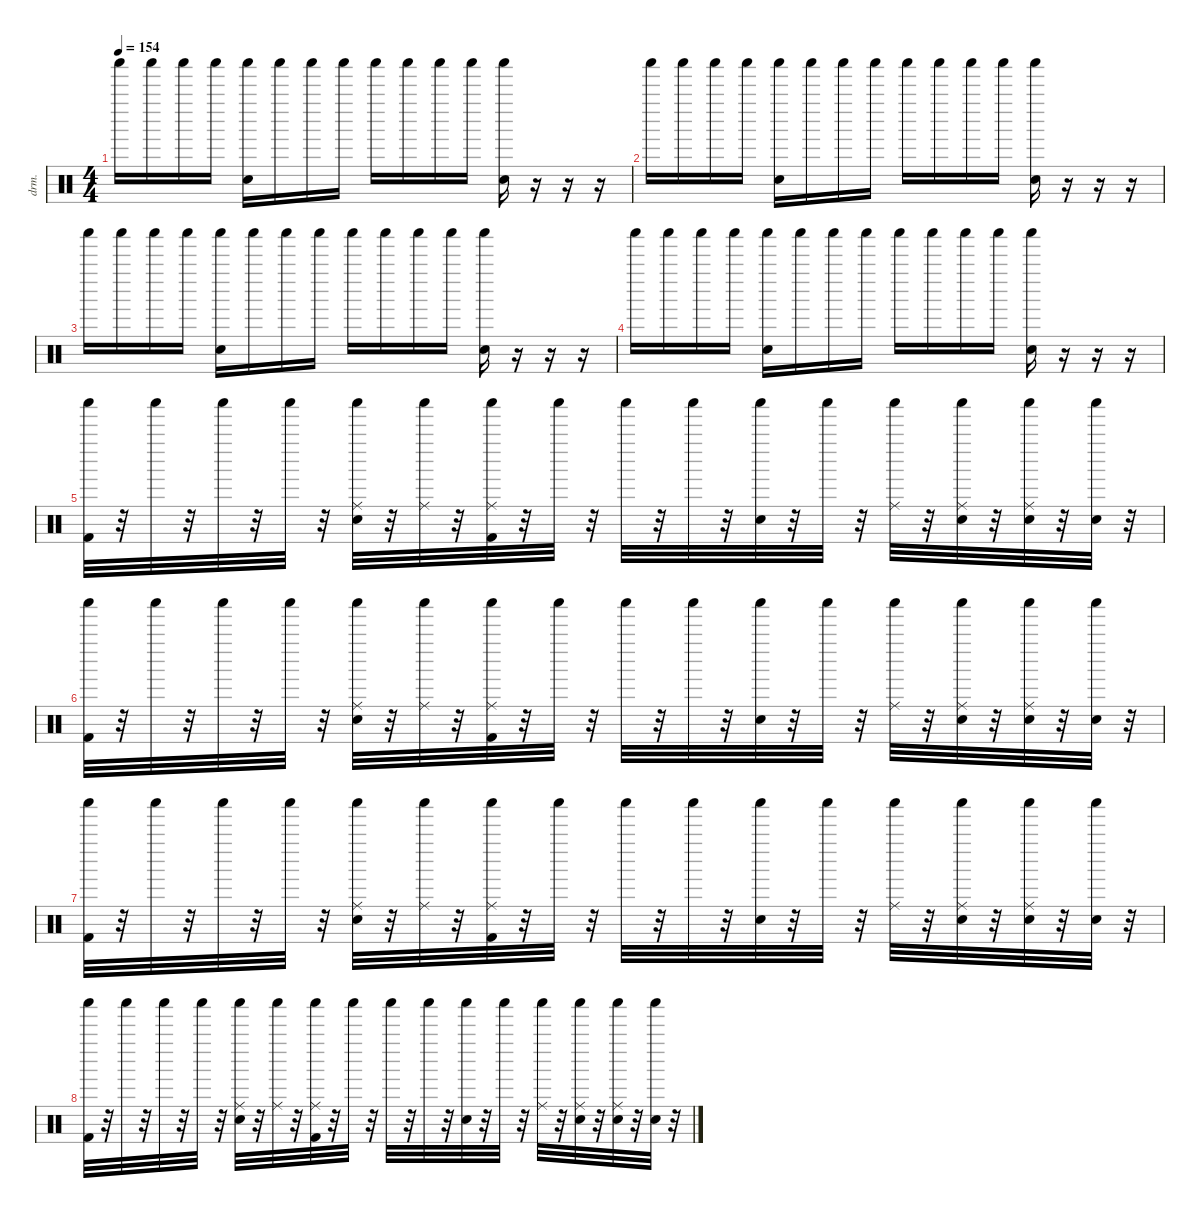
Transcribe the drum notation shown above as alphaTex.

\defaultSystemsLayout 4
\hideDynamics
\bracketExtendMode nobrackets
\otherSystemsTrackNameOrientation horizontal
\track ("Percussion" "drm.") {instrument percussion}
\staff {score}
\articulation defaults
\ts (4 4)
\tempo 154
\clef neutral
\ks c "Shaker (hit)".16{dy f beam Down} "Shaker (hit)".16{beam Down} "Shaker (hit)".16{beam Down} "Shaker (hit)".16{beam Down}
("Shaker (hit)" "Snare (hit) 2").16{beam Down} "Shaker (hit)".16{beam Down} "Shaker (hit)".16{beam Down} "Shaker (hit)".16{beam Down} "Shaker (hit)".16{beam Down} "Shaker (hit)".16{beam Down} "Shaker (hit)".16{beam Down} "Shaker (hit)".16{beam Down} ("Shaker (hit)" "Snare (hit) 2").16{beam Down} r.16{beam Down} r.16{beam Down} r.16{beam Down} |
"Shaker (hit)".16{beam Down} "Shaker (hit)".16{beam Down} "Shaker (hit)".16{beam Down} "Shaker (hit)".16{beam Down} ("Shaker (hit)" "Snare (hit) 2").16{beam Down} "Shaker (hit)".16{beam Down} "Shaker (hit)".16{beam Down} "Shaker (hit)".16{beam Down} "Shaker (hit)".16{beam Down} "Shaker (hit)".16{beam Down} "Shaker (hit)".16{beam Down} "Shaker (hit)".16{beam Down} ("Shaker (hit)" "Snare (hit) 2").16{beam Down} r.16{beam Down} r.16{beam Down} r.16{beam Down} |
"Shaker (hit)".16{beam Down} "Shaker (hit)".16{beam Down} "Shaker (hit)".16{beam Down} "Shaker (hit)".16{beam Down} ("Shaker (hit)" "Snare (hit) 2").16{beam Down} "Shaker (hit)".16{beam Down} "Shaker (hit)".16{beam Down} "Shaker (hit)".16{beam Down} "Shaker (hit)".16{beam Down} "Shaker (hit)".16{beam Down} "Shaker (hit)".16{beam Down} "Shaker (hit)".16{beam Down} ("Shaker (hit)" "Snare (hit) 2").16{beam Down} r.16{beam Down} r.16{beam Down} r.16{beam Down} |
"Shaker (hit)".16{beam Down} "Shaker (hit)".16{beam Down} "Shaker (hit)".16{beam Down} "Shaker (hit)".16{beam Down} ("Shaker (hit)" "Snare (hit) 2").16{beam Down} "Shaker (hit)".16{beam Down} "Shaker (hit)".16{beam Down} "Shaker (hit)".16{beam Down} "Shaker (hit)".16{beam Down} "Shaker (hit)".16{beam Down} "Shaker (hit)".16{beam Down} "Shaker (hit)".16{beam Down} ("Shaker (hit)" "Snare (hit) 2").16{beam Down} r.16{beam Down} r.16{beam Down} r.16{beam Down} |
("Shaker (hit)" "Kick (hit) 2").32{beam Down} r.32{beam Down} "Shaker (hit)".32{beam Down} r.32{beam Down} "Shaker (hit)".32{beam Down} r.32{beam Down} "Shaker (hit)".32{beam Down} r.32{beam Down} ("Shaker (hit)" "Snare (hit) 2" "Ride (middle)").32{beam Down} r.32{beam Down} ("Shaker (hit)" "Ride (middle)").32{beam Down} r.32{beam Down} ("Shaker (hit)" "Kick (hit) 2" "Ride (middle)").32{beam Down} r.32{beam Down} "Shaker (hit)".32{beam Down} r.32{beam Down} "Shaker (hit)".32{beam Down} r.32{beam Down} "Shaker (hit)".32{beam Down} r.32{beam Down} ("Shaker (hit)" "Snare (hit) 2").32{beam Down} r.32{beam Down} "Shaker (hit)".32{beam Down} r.32{beam Down} ("Shaker (hit)" "Ride (middle)").32{beam Down} r.32{beam Down} ("Shaker (hit)" "Snare (hit) 2" "Ride (middle)").32{beam Down} r.32{beam Down} ("Shaker (hit)" "Snare (hit) 2" "Ride (middle)").32{beam Down} r.32{beam Down} ("Shaker (hit)" "Snare (hit) 2").32{beam Down} r.32{beam Down} |
("Shaker (hit)" "Kick (hit) 2").32{beam Down} r.32{beam Down} "Shaker (hit)".32{beam Down} r.32{beam Down} "Shaker (hit)".32{beam Down} r.32{beam Down} "Shaker (hit)".32{beam Down} r.32{beam Down} ("Shaker (hit)" "Snare (hit) 2" "Ride (middle)").32{beam Down} r.32{beam Down} ("Shaker (hit)" "Ride (middle)").32{beam Down} r.32{beam Down} ("Shaker (hit)" "Kick (hit) 2" "Ride (middle)").32{beam Down} r.32{beam Down} "Shaker (hit)".32{beam Down} r.32{beam Down} "Shaker (hit)".32{beam Down} r.32{beam Down} "Shaker (hit)".32{beam Down} r.32{beam Down} ("Shaker (hit)" "Snare (hit) 2").32{beam Down} r.32{beam Down} "Shaker (hit)".32{beam Down} r.32{beam Down} ("Shaker (hit)" "Ride (middle)").32{beam Down} r.32{beam Down} ("Shaker (hit)" "Snare (hit) 2" "Ride (middle)").32{beam Down} r.32{beam Down} ("Shaker (hit)" "Snare (hit) 2" "Ride (middle)").32{beam Down} r.32{beam Down} ("Shaker (hit)" "Snare (hit) 2").32{beam Down} r.32{beam Down} |
("Shaker (hit)" "Kick (hit) 2").32{beam Down} r.32{beam Down} "Shaker (hit)".32{beam Down} r.32{beam Down} "Shaker (hit)".32{beam Down} r.32{beam Down} "Shaker (hit)".32{beam Down} r.32{beam Down} ("Shaker (hit)" "Snare (hit) 2" "Ride (middle)").32{beam Down} r.32{beam Down} ("Shaker (hit)" "Ride (middle)").32{beam Down} r.32{beam Down} ("Shaker (hit)" "Kick (hit) 2" "Ride (middle)").32{beam Down} r.32{beam Down} "Shaker (hit)".32{beam Down} r.32{beam Down} "Shaker (hit)".32{beam Down} r.32{beam Down} "Shaker (hit)".32{beam Down} r.32{beam Down} ("Shaker (hit)" "Snare (hit) 2").32{beam Down} r.32{beam Down} "Shaker (hit)".32{beam Down} r.32{beam Down} ("Shaker (hit)" "Ride (middle)").32{beam Down} r.32{beam Down} ("Shaker (hit)" "Snare (hit) 2" "Ride (middle)").32{beam Down} r.32{beam Down} ("Shaker (hit)" "Snare (hit) 2" "Ride (middle)").32{beam Down} r.32{beam Down} ("Shaker (hit)" "Snare (hit) 2").32{beam Down} r.32{beam Down} |
("Shaker (hit)" "Kick (hit) 2").32{beam Down} r.32{beam Down} "Shaker (hit)".32{beam Down} r.32{beam Down} "Shaker (hit)".32{beam Down} r.32{beam Down} "Shaker (hit)".32{beam Down} r.32{beam Down} ("Shaker (hit)" "Snare (hit) 2" "Ride (middle)").32{beam Down} r.32{beam Down} ("Shaker (hit)" "Ride (middle)").32{beam Down} r.32{beam Down} ("Shaker (hit)" "Kick (hit) 2" "Ride (middle)").32{beam Down} r.32{beam Down} "Shaker (hit)".32{beam Down} r.32{beam Down} "Shaker (hit)".32{beam Down} r.32{beam Down} "Shaker (hit)".32{beam Down} r.32{beam Down} ("Shaker (hit)" "Snare (hit) 2").32{beam Down} r.32{beam Down} "Shaker (hit)".32{beam Down} r.32{beam Down} ("Shaker (hit)" "Ride (middle)").32{beam Down} r.32{beam Down} ("Shaker (hit)" "Snare (hit) 2" "Ride (middle)").32{beam Down} r.32{beam Down} ("Shaker (hit)" "Snare (hit) 2" "Ride (middle)").32{beam Down} r.32{beam Down} ("Shaker (hit)" "Snare (hit) 2").32{beam Down} r.32{beam Down}
